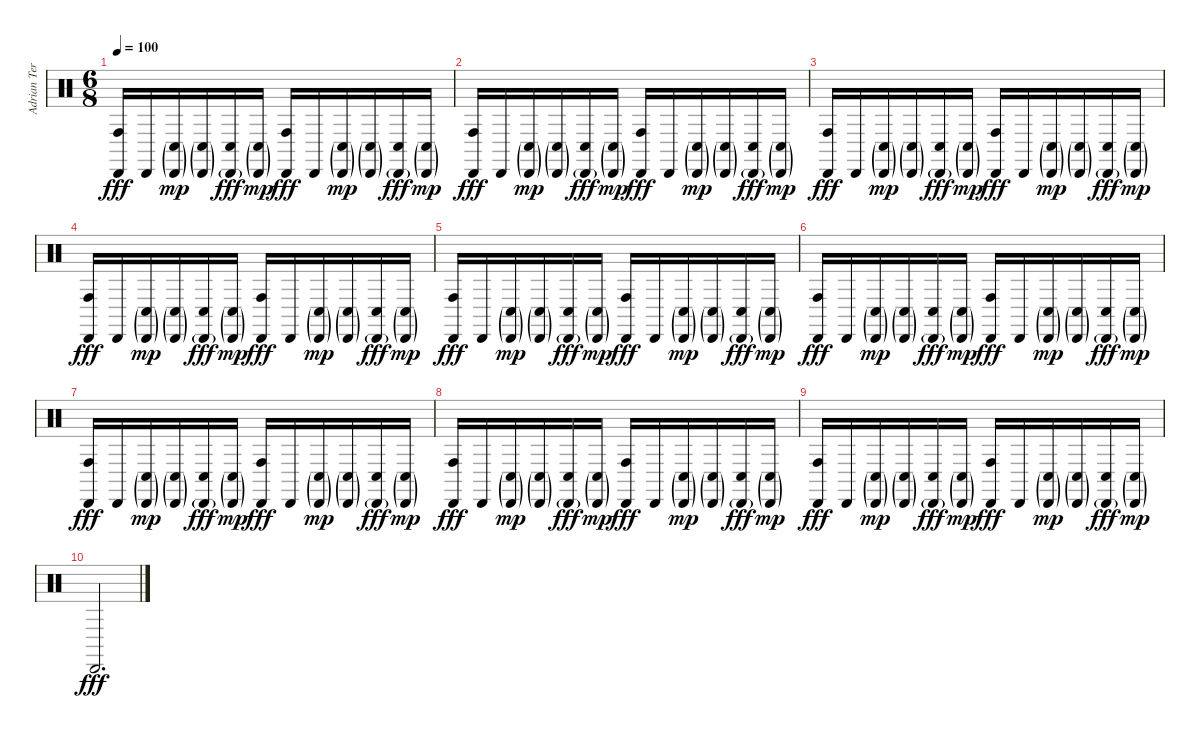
\track ("Adrian Terrazas" "Adrian Ter") {instrument percussion}
\staff {score}
\articulation defaults
\ts (6 8)
\tempo 100
\clef neutral
\ks c
("Cabasa (hit)" "Conga high (hit)").16{dy fff} "Cabasa (hit)".16 ("Cabasa (hit)"{g} "Conga low (hit)"{g}).16{dy mp} ("Cabasa (hit)"{g} "Conga low (hit)"{g}).16 ("Cabasa (hit)"{g} "Conga low (hit)").16{dy fff} ("Cabasa (hit)"{g} "Conga low (hit)"{g}).16{dy mp} ("Cabasa (hit)" "Conga high (hit)").16{dy fff} "Cabasa (hit)".16 ("Cabasa (hit)"{g} "Conga low (hit)"{g}).16{dy mp} ("Cabasa (hit)"{g} "Conga low (hit)"{g}).16 ("Cabasa (hit)"{g} "Conga low (hit)").16{dy fff} ("Cabasa (hit)"{g} "Conga low (hit)"{g}).16{dy mp} |
("Cabasa (hit)" "Conga high (hit)").16{dy fff} "Cabasa (hit)".16 ("Cabasa (hit)"{g} "Conga low (hit)"{g}).16{dy mp} ("Cabasa (hit)"{g} "Conga low (hit)"{g}).16 ("Cabasa (hit)"{g} "Conga low (hit)").16{dy fff} ("Cabasa (hit)"{g} "Conga low (hit)"{g}).16{dy mp} ("Cabasa (hit)" "Conga high (hit)").16{dy fff} "Cabasa (hit)".16 ("Cabasa (hit)"{g} "Conga low (hit)"{g}).16{dy mp} ("Cabasa (hit)"{g} "Conga low (hit)"{g}).16 ("Cabasa (hit)"{g} "Conga low (hit)").16{dy fff} ("Cabasa (hit)"{g} "Conga low (hit)"{g}).16{dy mp} |
("Cabasa (hit)" "Conga high (hit)").16{dy fff} "Cabasa (hit)".16 ("Cabasa (hit)"{g} "Conga low (hit)"{g}).16{dy mp} ("Cabasa (hit)"{g} "Conga low (hit)"{g}).16 ("Cabasa (hit)"{g} "Conga low (hit)").16{dy fff} ("Cabasa (hit)"{g} "Conga low (hit)"{g}).16{dy mp} ("Cabasa (hit)" "Conga high (hit)").16{dy fff} "Cabasa (hit)".16 ("Cabasa (hit)"{g} "Conga low (hit)"{g}).16{dy mp} ("Cabasa (hit)"{g} "Conga low (hit)"{g}).16 ("Cabasa (hit)"{g} "Conga low (hit)").16{dy fff} ("Cabasa (hit)"{g} "Conga low (hit)"{g}).16{dy mp} |
("Cabasa (hit)" "Conga high (hit)").16{dy fff} "Cabasa (hit)".16 ("Cabasa (hit)"{g} "Conga low (hit)"{g}).16{dy mp} ("Cabasa (hit)"{g} "Conga low (hit)"{g}).16 ("Cabasa (hit)"{g} "Conga low (hit)").16{dy fff} ("Cabasa (hit)"{g} "Conga low (hit)"{g}).16{dy mp} ("Cabasa (hit)" "Conga high (hit)").16{dy fff} "Cabasa (hit)".16 ("Cabasa (hit)"{g} "Conga low (hit)"{g}).16{dy mp} ("Cabasa (hit)"{g} "Conga low (hit)"{g}).16 ("Cabasa (hit)"{g} "Conga low (hit)").16{dy fff} ("Cabasa (hit)"{g} "Conga low (hit)"{g}).16{dy mp} |
("Cabasa (hit)" "Conga high (hit)").16{dy fff} "Cabasa (hit)".16 ("Cabasa (hit)"{g} "Conga low (hit)"{g}).16{dy mp} ("Cabasa (hit)"{g} "Conga low (hit)"{g}).16 ("Cabasa (hit)"{g} "Conga low (hit)").16{dy fff} ("Cabasa (hit)"{g} "Conga low (hit)"{g}).16{dy mp} ("Cabasa (hit)" "Conga high (hit)").16{dy fff} "Cabasa (hit)".16 ("Cabasa (hit)"{g} "Conga low (hit)"{g}).16{dy mp} ("Cabasa (hit)"{g} "Conga low (hit)"{g}).16 ("Cabasa (hit)"{g} "Conga low (hit)").16{dy fff} ("Cabasa (hit)"{g} "Conga low (hit)"{g}).16{dy mp} |
("Cabasa (hit)" "Conga high (hit)").16{dy fff} "Cabasa (hit)".16 ("Cabasa (hit)"{g} "Conga low (hit)"{g}).16{dy mp} ("Cabasa (hit)"{g} "Conga low (hit)"{g}).16 ("Cabasa (hit)"{g} "Conga low (hit)").16{dy fff} ("Cabasa (hit)"{g} "Conga low (hit)"{g}).16{dy mp} ("Cabasa (hit)" "Conga high (hit)").16{dy fff} "Cabasa (hit)".16 ("Cabasa (hit)"{g} "Conga low (hit)"{g}).16{dy mp} ("Cabasa (hit)"{g} "Conga low (hit)"{g}).16 ("Cabasa (hit)"{g} "Conga low (hit)").16{dy fff} ("Cabasa (hit)"{g} "Conga low (hit)"{g}).16{dy mp} |
("Cabasa (hit)" "Conga high (hit)").16{dy fff} "Cabasa (hit)".16 ("Cabasa (hit)"{g} "Conga low (hit)"{g}).16{dy mp} ("Cabasa (hit)"{g} "Conga low (hit)"{g}).16 ("Cabasa (hit)"{g} "Conga low (hit)").16{dy fff} ("Cabasa (hit)"{g} "Conga low (hit)"{g}).16{dy mp} ("Cabasa (hit)" "Conga high (hit)").16{dy fff} "Cabasa (hit)".16 ("Cabasa (hit)"{g} "Conga low (hit)"{g}).16{dy mp} ("Cabasa (hit)"{g} "Conga low (hit)"{g}).16 ("Cabasa (hit)"{g} "Conga low (hit)").16{dy fff} ("Cabasa (hit)"{g} "Conga low (hit)"{g}).16{dy mp} |
("Cabasa (hit)" "Conga high (hit)").16{dy fff} "Cabasa (hit)".16 ("Cabasa (hit)"{g} "Conga low (hit)"{g}).16{dy mp} ("Cabasa (hit)"{g} "Conga low (hit)"{g}).16 ("Cabasa (hit)"{g} "Conga low (hit)").16{dy fff} ("Cabasa (hit)"{g} "Conga low (hit)"{g}).16{dy mp} ("Cabasa (hit)" "Conga high (hit)").16{dy fff} "Cabasa (hit)".16 ("Cabasa (hit)"{g} "Conga low (hit)"{g}).16{dy mp} ("Cabasa (hit)"{g} "Conga low (hit)"{g}).16 ("Cabasa (hit)"{g} "Conga low (hit)").16{dy fff} ("Cabasa (hit)"{g} "Conga low (hit)"{g}).16{dy mp} |
("Cabasa (hit)" "Conga high (hit)").16{dy fff} "Cabasa (hit)".16 ("Cabasa (hit)"{g} "Conga low (hit)"{g}).16{dy mp} ("Cabasa (hit)"{g} "Conga low (hit)"{g}).16 ("Cabasa (hit)"{g} "Conga low (hit)").16{dy fff} ("Cabasa (hit)"{g} "Conga low (hit)"{g}).16{dy mp} ("Cabasa (hit)" "Conga high (hit)").16{dy fff} "Cabasa (hit)".16 ("Cabasa (hit)"{g} "Conga low (hit)"{g}).16{dy mp} ("Cabasa (hit)"{g} "Conga low (hit)"{g}).16 ("Cabasa (hit)"{g} "Conga low (hit)").16{dy fff} ("Cabasa (hit)"{g} "Conga low (hit)"{g}).16{dy mp} |
"Cabasa (hit)".2{d dy fff}
